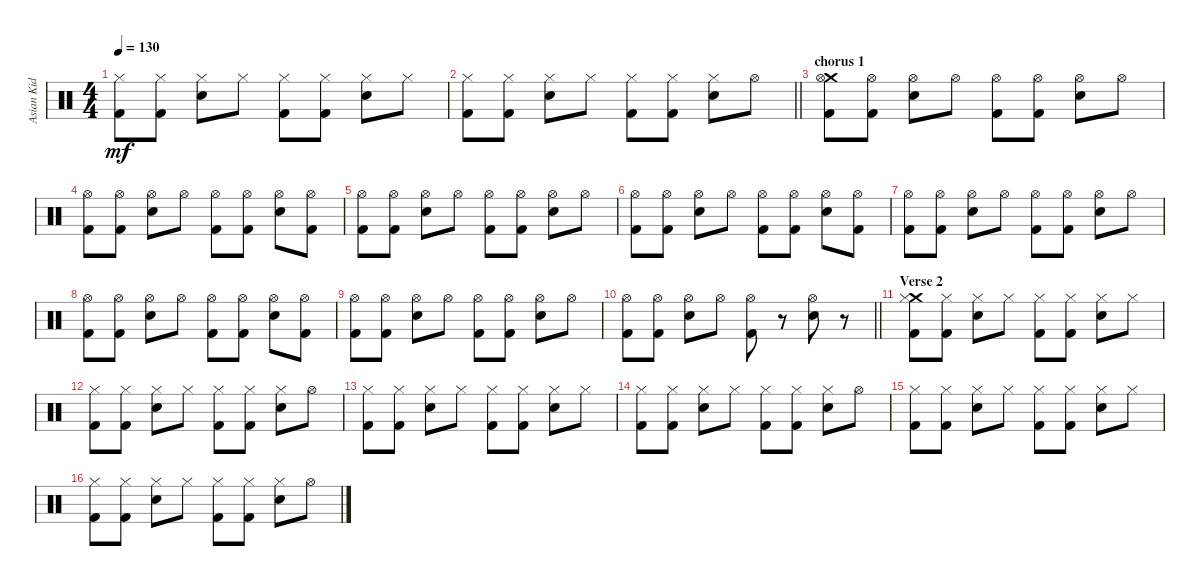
\track ("Asian Kid" "Asian Kid") {instrument percussion}
\staff {score}
\articulation defaults
\ts (4 4)
\tempo 130
\clef neutral
\ks c
("Hi-Hat (closed)" "Kick (hit) 2").8{dy mf} ("Hi-Hat (closed)" "Kick (hit) 2").8 ("Hi-Hat (closed)" "Electric Snare (hit)").8 "Hi-Hat (closed)".8 ("Hi-Hat (closed)" "Kick (hit) 2").8 ("Hi-Hat (closed)" "Kick (hit) 2").8 ("Hi-Hat (closed)" "Electric Snare (hit)").8 "Hi-Hat (closed)".8 |
\barLineRight lightlight
("Hi-Hat (closed)" "Kick (hit) 2").8 ("Hi-Hat (closed)" "Kick (hit) 2").8 ("Hi-Hat (closed)" "Electric Snare (hit)").8 "Hi-Hat (closed)".8 ("Hi-Hat (closed)" "Kick (hit) 2").8 ("Hi-Hat (closed)" "Kick (hit) 2").8 ("Hi-Hat (closed)" "Electric Snare (hit)").8 "Hi-Hat (open)".8 |
\section ("" "chorus 1")
("Crash medium (hit)" "Hi-Hat (open)" "Kick (hit) 2").8 ("Hi-Hat (open)" "Kick (hit) 2").8 ("Hi-Hat (open)" "Electric Snare (hit)").8 "Hi-Hat (open)".8 ("Hi-Hat (open)" "Kick (hit) 2").8 ("Hi-Hat (open)" "Kick (hit) 2").8 ("Hi-Hat (open)" "Electric Snare (hit)").8 "Hi-Hat (open)".8 |
("Hi-Hat (open)" "Kick (hit) 2").8 ("Hi-Hat (open)" "Kick (hit) 2").8 ("Hi-Hat (open)" "Electric Snare (hit)").8 "Hi-Hat (open)".8 ("Hi-Hat (open)" "Kick (hit) 2").8 ("Hi-Hat (open)" "Kick (hit) 2").8 ("Hi-Hat (open)" "Electric Snare (hit)").8 ("Hi-Hat (open)" "Kick (hit) 2").8 |
("Hi-Hat (open)" "Kick (hit) 2").8 ("Hi-Hat (open)" "Kick (hit) 2").8 ("Hi-Hat (open)" "Electric Snare (hit)").8 "Hi-Hat (open)".8 ("Hi-Hat (open)" "Kick (hit) 2").8 ("Hi-Hat (open)" "Kick (hit) 2").8 ("Hi-Hat (open)" "Electric Snare (hit)").8 "Hi-Hat (open)".8 |
("Hi-Hat (open)" "Kick (hit) 2").8 ("Hi-Hat (open)" "Kick (hit) 2").8 ("Hi-Hat (open)" "Electric Snare (hit)").8 "Hi-Hat (open)".8 ("Hi-Hat (open)" "Kick (hit) 2").8 ("Hi-Hat (open)" "Kick (hit) 2").8 ("Hi-Hat (open)" "Electric Snare (hit)").8 ("Hi-Hat (open)" "Kick (hit) 2").8 |
("Hi-Hat (open)" "Kick (hit) 2").8 ("Hi-Hat (open)" "Kick (hit) 2").8 ("Hi-Hat (open)" "Electric Snare (hit)").8 "Hi-Hat (open)".8 ("Hi-Hat (open)" "Kick (hit) 2").8 ("Hi-Hat (open)" "Kick (hit) 2").8 ("Hi-Hat (open)" "Electric Snare (hit)").8 "Hi-Hat (open)".8 |
("Hi-Hat (open)" "Kick (hit) 2").8 ("Hi-Hat (open)" "Kick (hit) 2").8 ("Hi-Hat (open)" "Electric Snare (hit)").8 "Hi-Hat (open)".8 ("Hi-Hat (open)" "Kick (hit) 2").8 ("Hi-Hat (open)" "Kick (hit) 2").8 ("Hi-Hat (open)" "Electric Snare (hit)").8 ("Hi-Hat (open)" "Kick (hit) 2").8 |
("Hi-Hat (open)" "Kick (hit) 2").8 ("Hi-Hat (open)" "Kick (hit) 2").8 ("Hi-Hat (open)" "Electric Snare (hit)").8 "Hi-Hat (open)".8 ("Hi-Hat (open)" "Kick (hit) 2").8 ("Hi-Hat (open)" "Kick (hit) 2").8 ("Hi-Hat (open)" "Electric Snare (hit)").8 "Hi-Hat (open)".8 |
\barLineRight lightlight
("Hi-Hat (open)" "Kick (hit) 2").8 ("Hi-Hat (open)" "Kick (hit) 2").8 ("Hi-Hat (open)" "Electric Snare (hit)").8 "Hi-Hat (open)".8 ("Hi-Hat (open)" "Kick (hit) 2").8 r.8 ("Hi-Hat (open)" "Electric Snare (hit)").8 r.8 |
\section ("" "Verse 2")
("Crash medium (hit)" "Hi-Hat (closed)" "Kick (hit) 2").8 ("Hi-Hat (closed)" "Kick (hit) 2").8 ("Hi-Hat (closed)" "Electric Snare (hit)").8 "Hi-Hat (closed)".8 ("Hi-Hat (closed)" "Kick (hit) 2").8 ("Hi-Hat (closed)" "Kick (hit) 2").8 ("Hi-Hat (closed)" "Electric Snare (hit)").8 "Hi-Hat (closed)".8 |
("Hi-Hat (closed)" "Kick (hit) 2").8 ("Hi-Hat (closed)" "Kick (hit) 2").8 ("Hi-Hat (closed)" "Electric Snare (hit)").8 "Hi-Hat (closed)".8 ("Hi-Hat (closed)" "Kick (hit) 2").8 ("Hi-Hat (closed)" "Kick (hit) 2").8 ("Hi-Hat (closed)" "Electric Snare (hit)").8 "Hi-Hat (open)".8 |
("Hi-Hat (closed)" "Kick (hit) 2").8 ("Hi-Hat (closed)" "Kick (hit) 2").8 ("Hi-Hat (closed)" "Electric Snare (hit)").8 "Hi-Hat (closed)".8 ("Hi-Hat (closed)" "Kick (hit) 2").8 ("Hi-Hat (closed)" "Kick (hit) 2").8 ("Hi-Hat (closed)" "Electric Snare (hit)").8 "Hi-Hat (closed)".8 |
("Hi-Hat (closed)" "Kick (hit) 2").8 ("Hi-Hat (closed)" "Kick (hit) 2").8 ("Hi-Hat (closed)" "Electric Snare (hit)").8 "Hi-Hat (closed)".8 ("Hi-Hat (closed)" "Kick (hit) 2").8 ("Hi-Hat (closed)" "Kick (hit) 2").8 ("Hi-Hat (closed)" "Electric Snare (hit)").8 "Hi-Hat (open)".8 |
("Hi-Hat (closed)" "Kick (hit) 2").8 ("Hi-Hat (closed)" "Kick (hit) 2").8 ("Hi-Hat (closed)" "Electric Snare (hit)").8 "Hi-Hat (closed)".8 ("Hi-Hat (closed)" "Kick (hit) 2").8 ("Hi-Hat (closed)" "Kick (hit) 2").8 ("Hi-Hat (closed)" "Electric Snare (hit)").8 "Hi-Hat (closed)".8 |
("Hi-Hat (closed)" "Kick (hit) 2").8 ("Hi-Hat (closed)" "Kick (hit) 2").8 ("Hi-Hat (closed)" "Electric Snare (hit)").8 "Hi-Hat (closed)".8 ("Hi-Hat (closed)" "Kick (hit) 2").8 ("Hi-Hat (closed)" "Kick (hit) 2").8 ("Hi-Hat (closed)" "Electric Snare (hit)").8 "Hi-Hat (open)".8
